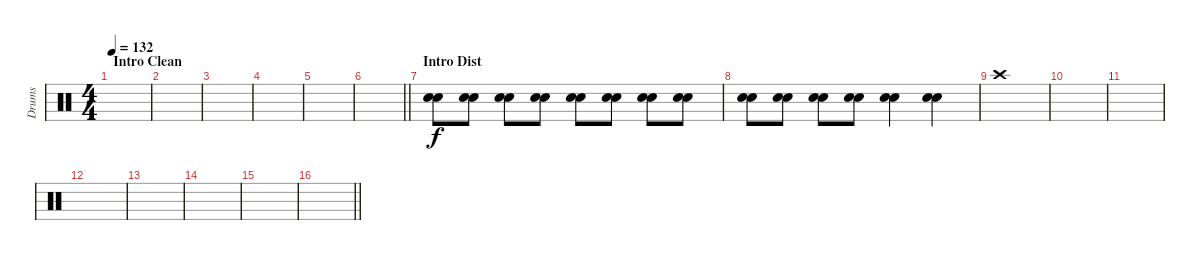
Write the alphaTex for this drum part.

\track ("Drums" "Drums") {instrument percussion}
\staff {score}
\articulation defaults
\ts (4 4)
\section ("" "Intro Clean")
\tempo 132
\clef neutral
\ks c
|
|
|
|
|
\barLineRight lightlight
|
\section ("" "Intro Dist")
("Snare (hit) 2" "Snare (hit) 2").8 ("Snare (hit) 2" "Snare (hit) 2").8 ("Snare (hit) 2" "Snare (hit) 2").8 ("Snare (hit) 2" "Snare (hit) 2").8 ("Snare (hit) 2" "Snare (hit) 2").8 ("Snare (hit) 2" "Snare (hit) 2").8 ("Snare (hit) 2" "Snare (hit) 2").8 ("Snare (hit) 2" "Snare (hit) 2").8 |
("Snare (hit) 2" "Snare (hit) 2").8 ("Snare (hit) 2" "Snare (hit) 2").8 ("Snare (hit) 2" "Snare (hit) 2").8 ("Snare (hit) 2" "Snare (hit) 2").8 ("Snare (hit) 2" "Snare (hit) 2").4 ("Snare (hit) 2" "Snare (hit) 2").4 |
"Crash high (hit)".1 |
|
|
|
|
|
|
\barLineRight lightlight
